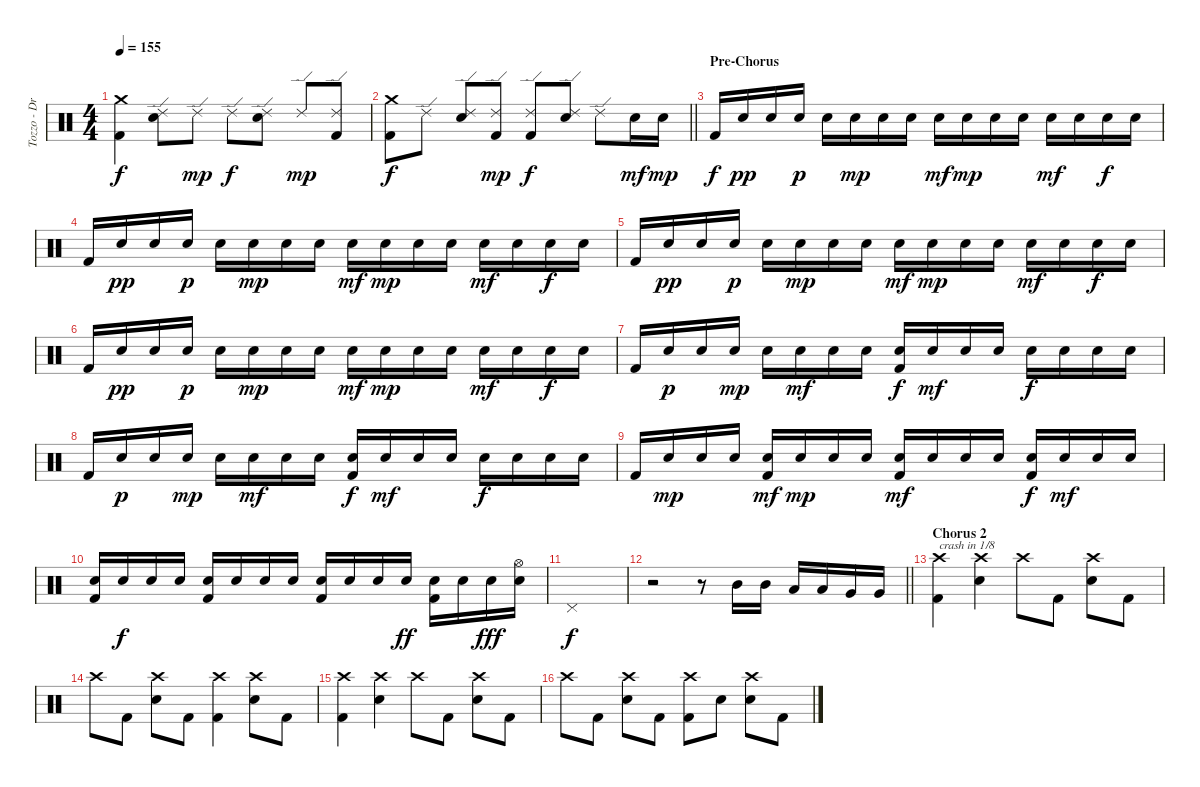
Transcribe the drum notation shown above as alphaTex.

\track ("Tozzo - Drums" "Tozzo - Dr") {instrument percussion}
\staff {score}
\articulation defaults
\ts (4 4)
\tempo 155
\clef neutral
\ks c
("Crash medium (hit)" "Kick (hit) 2").4{dy f} ("Ride (edge) 2" "Snare (hit) 2").8 "Ride (edge) 2".8{dy mp} "Ride (edge) 2".8{dy f} ("Ride (edge) 2" "Snare (hit) 2").8 "Ride (edge) 2".8{dy mp} ("Ride (edge) 2" "Kick (hit) 2").8 |
\barLineRight lightlight
("Crash medium (hit)" "Kick (hit) 2").8{dy f} "Ride (edge) 2".8 ("Ride (edge) 2" "Snare (hit) 2").8 ("Ride (edge) 2" "Kick (hit) 2").8{dy mp} ("Ride (edge) 2" "Kick (hit) 2").8{dy f} ("Ride (edge) 2" "Snare (hit) 2").8 "Ride (edge) 2".8 "Snare (hit) 2".16{dy mf} "Snare (hit) 2".16{dy mp} |
\section ("" "Pre-Chorus")
"Kick (hit) 2".16{dy f} "Snare (hit) 2".16{dy pp} "Snare (hit) 2".16 "Snare (hit) 2".16{dy p} "Snare (hit) 2".16 "Snare (hit) 2".16{dy mp} "Snare (hit) 2".16 "Snare (hit) 2".16 "Snare (hit) 2".16{dy mf} "Snare (hit) 2".16{dy mp} "Snare (hit) 2".16 "Snare (hit) 2".16 "Snare (hit) 2".16{dy mf} "Snare (hit) 2".16 "Snare (hit) 2".16{dy f} "Snare (hit) 2".16 |
"Kick (hit) 2".16 "Snare (hit) 2".16{dy pp} "Snare (hit) 2".16 "Snare (hit) 2".16{dy p} "Snare (hit) 2".16 "Snare (hit) 2".16{dy mp} "Snare (hit) 2".16 "Snare (hit) 2".16 "Snare (hit) 2".16{dy mf} "Snare (hit) 2".16{dy mp} "Snare (hit) 2".16 "Snare (hit) 2".16 "Snare (hit) 2".16{dy mf} "Snare (hit) 2".16 "Snare (hit) 2".16{dy f} "Snare (hit) 2".16 |
"Kick (hit) 2".16 "Snare (hit) 2".16{dy pp} "Snare (hit) 2".16 "Snare (hit) 2".16{dy p} "Snare (hit) 2".16 "Snare (hit) 2".16{dy mp} "Snare (hit) 2".16 "Snare (hit) 2".16 "Snare (hit) 2".16{dy mf} "Snare (hit) 2".16{dy mp} "Snare (hit) 2".16 "Snare (hit) 2".16 "Snare (hit) 2".16{dy mf} "Snare (hit) 2".16 "Snare (hit) 2".16{dy f} "Snare (hit) 2".16 |
"Kick (hit) 2".16 "Snare (hit) 2".16{dy pp} "Snare (hit) 2".16 "Snare (hit) 2".16{dy p} "Snare (hit) 2".16 "Snare (hit) 2".16{dy mp} "Snare (hit) 2".16 "Snare (hit) 2".16 "Snare (hit) 2".16{dy mf} "Snare (hit) 2".16{dy mp} "Snare (hit) 2".16 "Snare (hit) 2".16 "Snare (hit) 2".16{dy mf} "Snare (hit) 2".16 "Snare (hit) 2".16{dy f} "Snare (hit) 2".16 |
"Kick (hit) 2".16 "Snare (hit) 2".16{dy p} "Snare (hit) 2".16 "Snare (hit) 2".16{dy mp} "Snare (hit) 2".16 "Snare (hit) 2".16{dy mf} "Snare (hit) 2".16 "Snare (hit) 2".16 ("Snare (hit) 2" "Kick (hit) 2").16{dy f} "Snare (hit) 2".16{dy mf} "Snare (hit) 2".16 "Snare (hit) 2".16 "Snare (hit) 2".16{dy f} "Snare (hit) 2".16 "Snare (hit) 2".16 "Snare (hit) 2".16 |
"Kick (hit) 2".16 "Snare (hit) 2".16{dy p} "Snare (hit) 2".16 "Snare (hit) 2".16{dy mp} "Snare (hit) 2".16 "Snare (hit) 2".16{dy mf} "Snare (hit) 2".16 "Snare (hit) 2".16 ("Snare (hit) 2" "Kick (hit) 2").16{dy f} "Snare (hit) 2".16{dy mf} "Snare (hit) 2".16 "Snare (hit) 2".16 "Snare (hit) 2".16{dy f} "Snare (hit) 2".16 "Snare (hit) 2".16 "Snare (hit) 2".16 |
"Kick (hit) 2".16 "Snare (hit) 2".16{dy mp} "Snare (hit) 2".16 "Snare (hit) 2".16 ("Snare (hit) 2" "Kick (hit) 2").16{dy mf} "Snare (hit) 2".16{dy mp} "Snare (hit) 2".16 "Snare (hit) 2".16 ("Snare (hit) 2" "Kick (hit) 2").16{dy mf} "Snare (hit) 2".16 "Snare (hit) 2".16 "Snare (hit) 2".16 ("Snare (hit) 2" "Kick (hit) 2").16{dy f} "Snare (hit) 2".16{dy mf} "Snare (hit) 2".16 "Snare (hit) 2".16 |
("Snare (hit) 2" "Kick (hit) 2").16 "Snare (hit) 2".16{dy f} "Snare (hit) 2".16 "Snare (hit) 2".16 ("Snare (hit) 2" "Kick (hit) 2").16 "Snare (hit) 2".16 "Snare (hit) 2".16 "Snare (hit) 2".16 ("Snare (hit) 2" "Kick (hit) 2").16 "Snare (hit) 2".16 "Snare (hit) 2".16 "Snare (hit) 2".16{dy ff} ("Snare (hit) 2" "Kick (hit) 2").16 "Snare (hit) 2".16 "Snare (hit) 2".16{dy fff} ("Hi-Hat (open)" "Snare (hit) 2").16 |
"Pedal Hi-Hat (hit)".1{dy f} |
\barLineRight lightlight
r.2 r.8 "Mid Tom (hit)".16 "Mid Tom (hit)".16 "Low Tom (hit)".16 "Low Tom (hit)".16 "Very Low Tom (hit)".16 "Very Low Tom (hit)".16 |
\section ("" "Chorus 2")
("Crash high (hit)" "Kick (hit) 2").4{txt "crash in 1/8"} ("Crash high (hit)" "Snare (hit) 2").4 "Crash high (hit)".8 "Kick (hit) 2".8 ("Crash high (hit)" "Snare (hit) 2").8 "Kick (hit) 2".8 |
"Crash high (hit)".8 "Kick (hit) 2".8 ("Crash high (hit)" "Snare (hit) 2").8 "Kick (hit) 2".8 ("Crash high (hit)" "Kick (hit) 2").4 ("Crash high (hit)" "Snare (hit) 2").8 "Kick (hit) 2".8 |
("Crash high (hit)" "Kick (hit) 2").4 ("Crash high (hit)" "Snare (hit) 2").4 "Crash high (hit)".8 "Kick (hit) 2".8 ("Crash high (hit)" "Snare (hit) 2").8 "Kick (hit) 2".8 |
"Crash high (hit)".8 "Kick (hit) 2".8 ("Crash high (hit)" "Snare (hit) 2").8 "Kick (hit) 2".8 ("Crash high (hit)" "Kick (hit) 2").8 "Snare (hit) 2".8 ("Crash high (hit)" "Snare (hit) 2").8 "Kick (hit) 2".8
